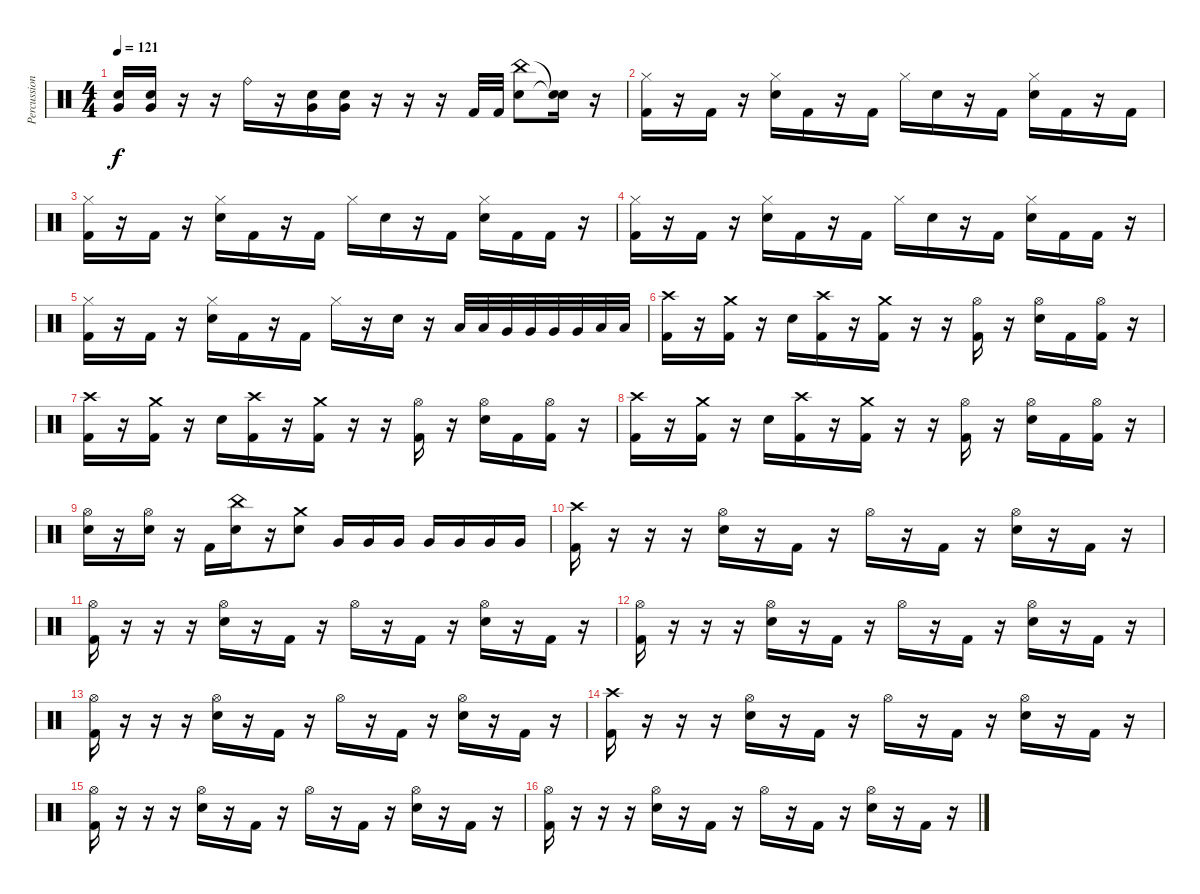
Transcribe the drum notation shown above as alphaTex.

\track ("Percussion" "Percussion") {instrument percussion}
\staff {score}
\articulation defaults
\ts (4 4)
\tempo 121
\clef neutral
\ks c
("Very Low Tom (hit)" "Electric Snare (hit)").16{dy f} ("Very Low Tom (hit)" "Electric Snare (hit)").16 r.16 r.16 "Ride (bell)".16 r.16 ("Very Low Tom (hit)" "Electric Snare (hit)").16 ("Very Low Tom (hit)" "Electric Snare (hit)").16 r.16 r.16 r.16 "Kick (hit) 2".32 "Kick (hit) 2".32 ("China (hit)" "Electric Snare (hit)").8 ("Snare (hit)"{t} "Snare (hit)"{t}).16 r.16 |
("Hi-Hat (closed)" "Kick (hit) 2").16 r.16 "Kick (hit) 2".16 r.16 ("Hi-Hat (closed)" "Electric Snare (hit)").16 "Kick (hit) 2".16 r.16 "Kick (hit) 2".16 "Hi-Hat (closed)".16 "Electric Snare (hit)".16 r.16 "Kick (hit) 2".16 ("Hi-Hat (closed)" "Electric Snare (hit)").16 "Kick (hit) 2".16 r.16 "Kick (hit) 2".16 |
("Hi-Hat (closed)" "Kick (hit) 2").16 r.16 "Kick (hit) 2".16 r.16 ("Hi-Hat (closed)" "Electric Snare (hit)").16 "Kick (hit) 2".16 r.16 "Kick (hit) 2".16 "Hi-Hat (closed)".16 "Electric Snare (hit)".16 r.16 "Kick (hit) 2".16 ("Hi-Hat (closed)" "Electric Snare (hit)").16 "Kick (hit) 2".16 "Kick (hit) 2".16 r.16 |
("Hi-Hat (closed)" "Kick (hit) 2").16 r.16 "Kick (hit) 2".16 r.16 ("Hi-Hat (closed)" "Electric Snare (hit)").16 "Kick (hit) 2".16 r.16 "Kick (hit) 2".16 "Hi-Hat (closed)".16 "Electric Snare (hit)".16 r.16 "Kick (hit) 2".16 ("Hi-Hat (closed)" "Electric Snare (hit)").16 "Kick (hit) 2".16 "Kick (hit) 2".16 r.16 |
("Hi-Hat (closed)" "Kick (hit) 2").16 r.16 "Kick (hit) 2".16 r.16 ("Hi-Hat (closed)" "Electric Snare (hit)").16 "Kick (hit) 2".16 r.16 "Kick (hit) 2".16 "Hi-Hat (closed)".16 r.16 "Electric Snare (hit)".16 r.16 "Low Tom (hit)".32 "Low Tom (hit)".32 "Very Low Tom (hit)".32 "Very Low Tom (hit)".32 "Very Low Tom (hit)".32 "Very Low Tom (hit)".32 "Low Floor Tom (hit)".32 "Low Floor Tom (hit)".32 |
("Crash high (hit)" "Kick (hit) 2").16 r.16 ("Crash medium (hit)" "Kick (hit) 2").16 r.16 "Electric Snare (hit)".16 ("Crash high (hit)" "Kick (hit) 2").16 r.16 ("Crash medium (hit)" "Kick (hit) 2").16 r.16 r.16 ("Hi-Hat (open)" "Kick (hit) 2").16 r.16 ("Hi-Hat (open)" "Electric Snare (hit)").16 "Kick (hit) 2".16 ("Hi-Hat (open)" "Kick (hit) 2").16 r.16 |
("Crash high (hit)" "Kick (hit) 2").16 r.16 ("Crash medium (hit)" "Kick (hit) 2").16 r.16 "Electric Snare (hit)".16 ("Crash high (hit)" "Kick (hit) 2").16 r.16 ("Crash medium (hit)" "Kick (hit) 2").16 r.16 r.16 ("Hi-Hat (open)" "Kick (hit) 2").16 r.16 ("Hi-Hat (open)" "Electric Snare (hit)").16 "Kick (hit) 2".16 ("Hi-Hat (open)" "Kick (hit) 2").16 r.16 |
("Crash high (hit)" "Kick (hit) 2").16 r.16 ("Crash medium (hit)" "Kick (hit) 2").16 r.16 "Electric Snare (hit)".16 ("Crash high (hit)" "Kick (hit) 2").16 r.16 ("Crash medium (hit)" "Kick (hit) 2").16 r.16 r.16 ("Hi-Hat (open)" "Kick (hit) 2").16 r.16 ("Hi-Hat (open)" "Electric Snare (hit)").16 "Kick (hit) 2".16 ("Hi-Hat (open)" "Kick (hit) 2").16 r.16 |
("Hi-Hat (open)" "Electric Snare (hit)").16 r.16 ("Hi-Hat (open)" "Electric Snare (hit)").16 r.16 "Kick (hit) 2".16 ("China (hit)" "Electric Snare (hit)").16 r.16 ("Crash medium (hit)" "Electric Snare (hit)").8 "Very Low Tom (hit)".16 "Very Low Tom (hit)".16 "Very Low Tom (hit)".16 "Very Low Tom (hit)".16 "Very Low Tom (hit)".16 "Very Low Tom (hit)".16 "Very Low Tom (hit)".16 |
("Crash high (hit)" "Kick (hit) 2").16 r.16 r.16 r.16 ("Hi-Hat (open)" "Electric Snare (hit)").16 r.16 "Kick (hit) 2".16 r.16 "Hi-Hat (open)".16 r.16 "Kick (hit) 2".16 r.16 ("Hi-Hat (open)" "Electric Snare (hit)").16 r.16 "Kick (hit) 2".16 r.16 |
("Hi-Hat (open)" "Kick (hit) 2").16 r.16 r.16 r.16 ("Hi-Hat (open)" "Electric Snare (hit)").16 r.16 "Kick (hit) 2".16 r.16 "Hi-Hat (open)".16 r.16 "Kick (hit) 2".16 r.16 ("Hi-Hat (open)" "Electric Snare (hit)").16 r.16 "Kick (hit) 2".16 r.16 |
("Hi-Hat (open)" "Kick (hit) 2").16 r.16 r.16 r.16 ("Hi-Hat (open)" "Electric Snare (hit)").16 r.16 "Kick (hit) 2".16 r.16 "Hi-Hat (open)".16 r.16 "Kick (hit) 2".16 r.16 ("Hi-Hat (open)" "Electric Snare (hit)").16 r.16 "Kick (hit) 2".16 r.16 |
("Hi-Hat (open)" "Kick (hit) 2").16 r.16 r.16 r.16 ("Hi-Hat (open)" "Electric Snare (hit)").16 r.16 "Kick (hit) 2".16 r.16 "Hi-Hat (open)".16 r.16 "Kick (hit) 2".16 r.16 ("Hi-Hat (open)" "Electric Snare (hit)").16 r.16 "Kick (hit) 2".16 r.16 |
("Crash high (hit)" "Kick (hit) 2").16 r.16 r.16 r.16 ("Hi-Hat (open)" "Electric Snare (hit)").16 r.16 "Kick (hit) 2".16 r.16 "Hi-Hat (open)".16 r.16 "Kick (hit) 2".16 r.16 ("Hi-Hat (open)" "Electric Snare (hit)").16 r.16 "Kick (hit) 2".16 r.16 |
("Hi-Hat (open)" "Kick (hit) 2").16 r.16 r.16 r.16 ("Hi-Hat (open)" "Electric Snare (hit)").16 r.16 "Kick (hit) 2".16 r.16 "Hi-Hat (open)".16 r.16 "Kick (hit) 2".16 r.16 ("Hi-Hat (open)" "Electric Snare (hit)").16 r.16 "Kick (hit) 2".16 r.16 |
("Hi-Hat (open)" "Kick (hit) 2").16 r.16 r.16 r.16 ("Hi-Hat (open)" "Electric Snare (hit)").16 r.16 "Kick (hit) 2".16 r.16 "Hi-Hat (open)".16 r.16 "Kick (hit) 2".16 r.16 ("Hi-Hat (open)" "Electric Snare (hit)").16 r.16 "Kick (hit) 2".16 r.16
